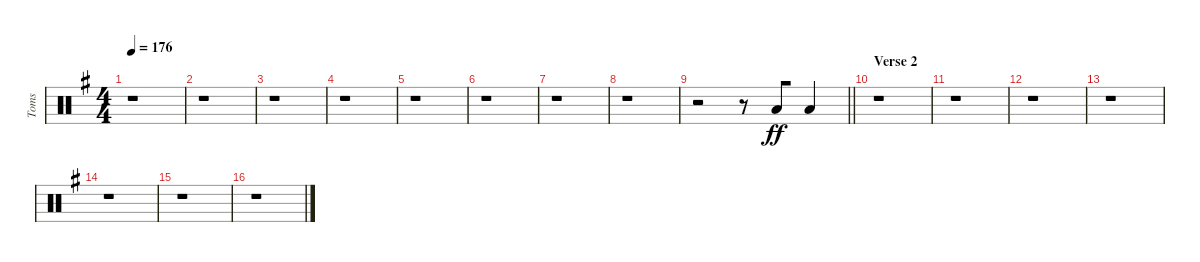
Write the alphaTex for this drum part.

\track ("Toms" "Toms") {instrument percussion}
\staff {score}
\articulation defaults
\ts (4 4)
\tempo 176
\clef neutral
\ks eminor
r.1{dy fff} |
r.1 |
r.1 |
r.1 |
r.1 |
r.1 |
r.1 |
r.1 |
\barLineRight lightlight
r.2 r.8{balance 5} "Low Tom (hit)".8{dy ff beam Up beam merge} "Low Tom (hit)".4{beam Up} |
\section ("" "Verse 2")
r.1 |
r.1 |
r.1 |
r.1 |
r.1 |
r.1 |
r.1
